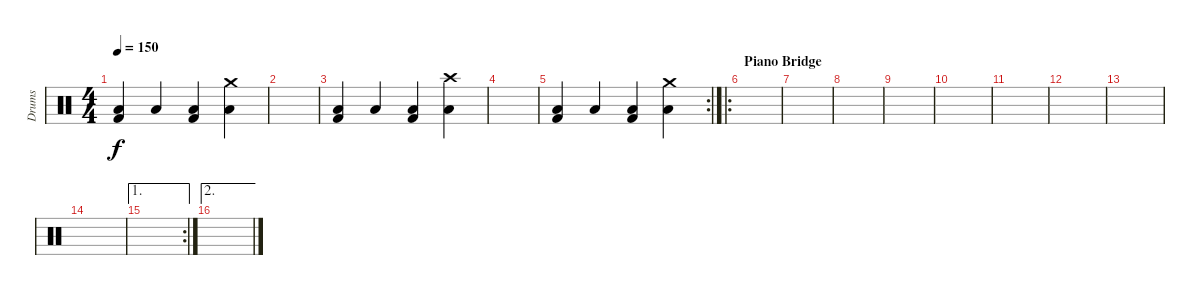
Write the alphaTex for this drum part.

\track ("Drums" "Drums") {instrument percussion}
\staff {score}
\articulation defaults
\ts (4 4)
\tempo 150
\clef neutral
\ks c
("Low Tom (hit)" "Kick (hit) 2").4{dy f} "Low Tom (hit)".4 ("Low Tom (hit)" "Kick (hit) 2").4 ("Crash medium (hit)" "Low Tom (hit)").4 |
|
("Low Tom (hit)" "Kick (hit) 2").4 "Low Tom (hit)".4 ("Low Tom (hit)" "Kick (hit) 2").4 ("Crash high (hit)" "Low Tom (hit)").4 |
|
\rc 2
("Low Tom (hit)" "Kick (hit) 2").4 "Low Tom (hit)".4 ("Low Tom (hit)" "Kick (hit) 2").4 ("Crash medium (hit)" "Low Tom (hit)").4 |
\ro
\section ("" "Piano Bridge")
|
|
|
|
|
|
|
|
|
\ae 1
\rc 2
|
\ae 2
